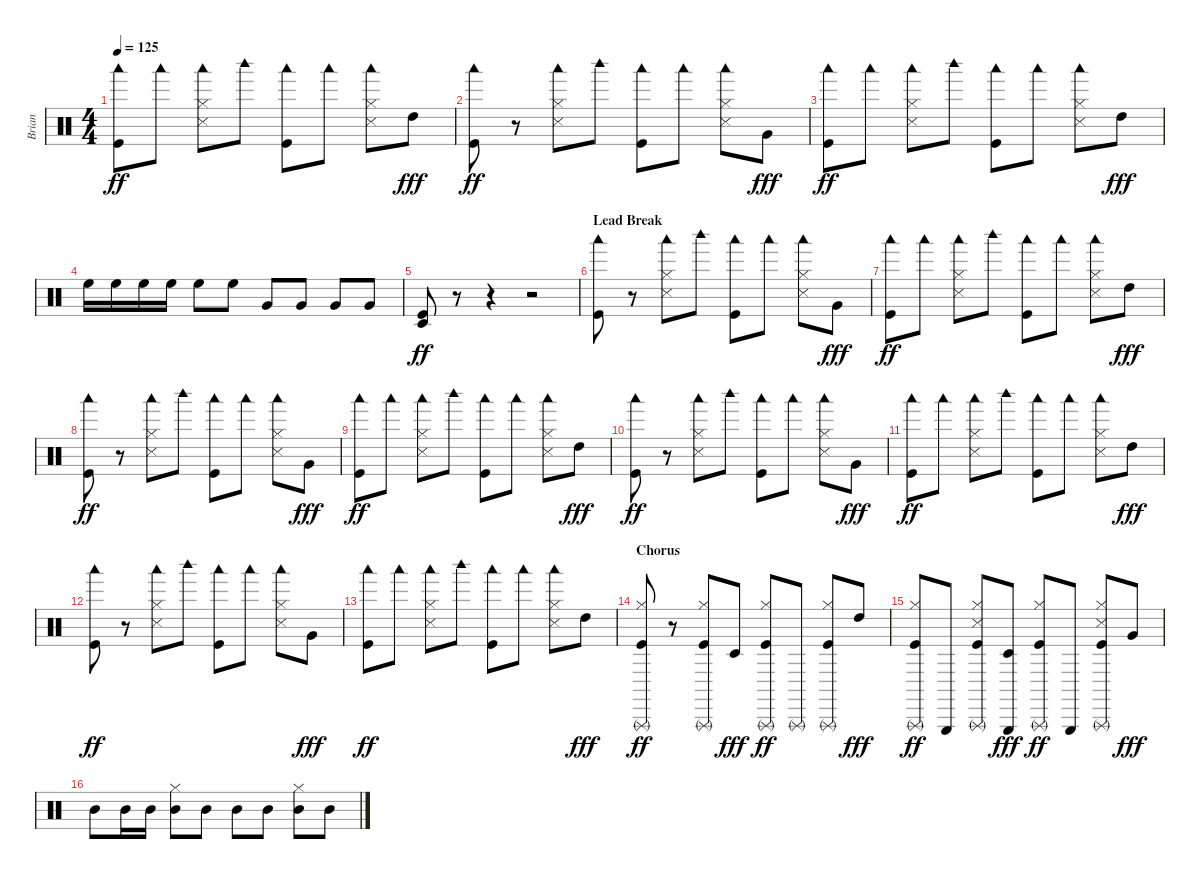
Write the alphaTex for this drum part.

\track ("Brian" "Brian") {instrument percussion}
\staff {score}
\articulation defaults
\ts (4 4)
\tempo 125
\clef neutral
\ks c
("Woodblock low (hit)" "Kick (hit)").8{dy ff} "Woodblock low (hit)".8 ("Woodblock low (hit)" "Hi-Hat (closed)" "Snare (side stick) 3").8 "Woodblock high (hit)".8 ("Woodblock low (hit)" "Kick (hit)").8 "Woodblock low (hit)".8 ("Woodblock low (hit)" "Hi-Hat (closed)" "Snare (side stick) 3").8 "High Tom (hit)".8{dy fff} |
("Woodblock low (hit)" "Kick (hit)").8{dy ff} r.8 ("Woodblock low (hit)" "Hi-Hat (closed)" "Snare (side stick) 3").8 "Woodblock high (hit)".8 ("Woodblock low (hit)" "Kick (hit)").8 "Woodblock low (hit)".8 ("Woodblock low (hit)" "Hi-Hat (closed)" "Snare (side stick) 3").8 "Very Low Tom (hit)".8{dy fff} |
("Woodblock low (hit)" "Kick (hit)").8{dy ff} "Woodblock low (hit)".8 ("Woodblock low (hit)" "Hi-Hat (closed)" "Snare (side stick) 3").8 "Woodblock high (hit)".8 ("Woodblock low (hit)" "Kick (hit)").8 "Woodblock low (hit)".8 ("Woodblock low (hit)" "Hi-Hat (closed)" "Snare (side stick) 3").8 "High Tom (hit)".8{dy fff} |
"High Floor Tom (hit)".16 "High Floor Tom (hit)".16 "High Floor Tom (hit)".16 "High Floor Tom (hit)".16 "High Floor Tom (hit)".8 "High Floor Tom (hit)".8 "Very Low Tom (hit)".8 "Very Low Tom (hit)".8 "Very Low Tom (hit)".8 "Very Low Tom (hit)".8 |
("Timbale low (hit)" "Kick (hit)").8{dy ff} r.8 r.4 r.2 |
\section ("" "Lead Break")
("Woodblock low (hit)" "Kick (hit)").8 r.8 ("Woodblock low (hit)" "Hi-Hat (closed)" "Snare (side stick) 3").8 "Woodblock high (hit)".8 ("Woodblock low (hit)" "Kick (hit)").8 "Woodblock low (hit)".8 ("Woodblock low (hit)" "Hi-Hat (closed)" "Snare (side stick) 3").8 "Very Low Tom (hit)".8{dy fff} |
("Woodblock low (hit)" "Kick (hit)").8{dy ff} "Woodblock low (hit)".8 ("Woodblock low (hit)" "Hi-Hat (closed)" "Snare (side stick) 3").8 "Woodblock high (hit)".8 ("Woodblock low (hit)" "Kick (hit)").8 "Woodblock low (hit)".8 ("Woodblock low (hit)" "Hi-Hat (closed)" "Snare (side stick) 3").8 "High Tom (hit)".8{dy fff} |
("Woodblock low (hit)" "Kick (hit)").8{dy ff} r.8 ("Woodblock low (hit)" "Hi-Hat (closed)" "Snare (side stick) 3").8 "Woodblock high (hit)".8 ("Woodblock low (hit)" "Kick (hit)").8 "Woodblock low (hit)".8 ("Woodblock low (hit)" "Hi-Hat (closed)" "Snare (side stick) 3").8 "Very Low Tom (hit)".8{dy fff} |
("Woodblock low (hit)" "Kick (hit)").8{dy ff} "Woodblock low (hit)".8 ("Woodblock low (hit)" "Hi-Hat (closed)" "Snare (side stick) 3").8 "Woodblock high (hit)".8 ("Woodblock low (hit)" "Kick (hit)").8 "Woodblock low (hit)".8 ("Woodblock low (hit)" "Hi-Hat (closed)" "Snare (side stick) 3").8 "High Tom (hit)".8{dy fff} |
("Woodblock low (hit)" "Kick (hit)").8{dy ff} r.8 ("Woodblock low (hit)" "Hi-Hat (closed)" "Snare (side stick) 3").8 "Woodblock high (hit)".8 ("Woodblock low (hit)" "Kick (hit)").8 "Woodblock low (hit)".8 ("Woodblock low (hit)" "Hi-Hat (closed)" "Snare (side stick) 3").8 "Very Low Tom (hit)".8{dy fff} |
("Woodblock low (hit)" "Kick (hit)").8{dy ff} "Woodblock low (hit)".8 ("Woodblock low (hit)" "Hi-Hat (closed)" "Snare (side stick) 3").8 "Woodblock high (hit)".8 ("Woodblock low (hit)" "Kick (hit)").8 "Woodblock low (hit)".8 ("Woodblock low (hit)" "Hi-Hat (closed)" "Snare (side stick) 3").8 "High Tom (hit)".8{dy fff} |
("Woodblock low (hit)" "Kick (hit)").8{dy ff} r.8 ("Woodblock low (hit)" "Hi-Hat (closed)" "Snare (side stick) 3").8 "Woodblock high (hit)".8 ("Woodblock low (hit)" "Kick (hit)").8 "Woodblock low (hit)".8 ("Woodblock low (hit)" "Hi-Hat (closed)" "Snare (side stick) 3").8 "Very Low Tom (hit)".8{dy fff} |
("Woodblock low (hit)" "Kick (hit)").8{dy ff} "Woodblock low (hit)".8 ("Woodblock low (hit)" "Hi-Hat (closed)" "Snare (side stick) 3").8 "Woodblock high (hit)".8 ("Woodblock low (hit)" "Kick (hit)").8 "Woodblock low (hit)".8 ("Woodblock low (hit)" "Hi-Hat (closed)" "Snare (side stick) 3").8 "High Tom (hit)".8{dy fff} |
\section ("" "Chorus")
("Triangle (rnute)" "Hi-Hat (closed)" "Kick (hit)").8{dy ff} r.8 ("Triangle (rnute)" "Hi-Hat (closed)" "Kick (hit)").8 "Timbale low (hit)".8{dy fff} ("Triangle (rnute)" "Hi-Hat (closed)" "Kick (hit)").8{dy ff} "Triangle (rnute)".8 ("Triangle (rnute)" "Hi-Hat (closed)" "Kick (hit)").8 "High Tom (hit)".8{dy fff} |
("Triangle (rnute)" "Hi-Hat (closed)" "Kick (hit)").8{dy ff} "Triangle (hit)".8 ("Triangle (rnute)" "Hi-Hat (closed)" "Snare (side stick) 3" "Kick (hit)").8 ("Triangle (hit)" "Timbale low (hit)").8{dy fff} ("Triangle (rnute)" "Hi-Hat (closed)" "Kick (hit)").8{dy ff} "Triangle (hit)".8 ("Triangle (rnute)" "Hi-Hat (closed)" "Snare (side stick) 3" "Kick (hit)").8 "Very Low Tom (hit)".8{dy fff} |
"Mid Tom (hit)".8 "Mid Tom (hit)".16 "Mid Tom (hit)".16 ("Hi-Hat (closed)" "Mid Tom (hit)").8 "Mid Tom (hit)".8 "Mid Tom (hit)".8 "Mid Tom (hit)".8 ("Hi-Hat (closed)" "Mid Tom (hit)").8 "Mid Tom (hit)".8
